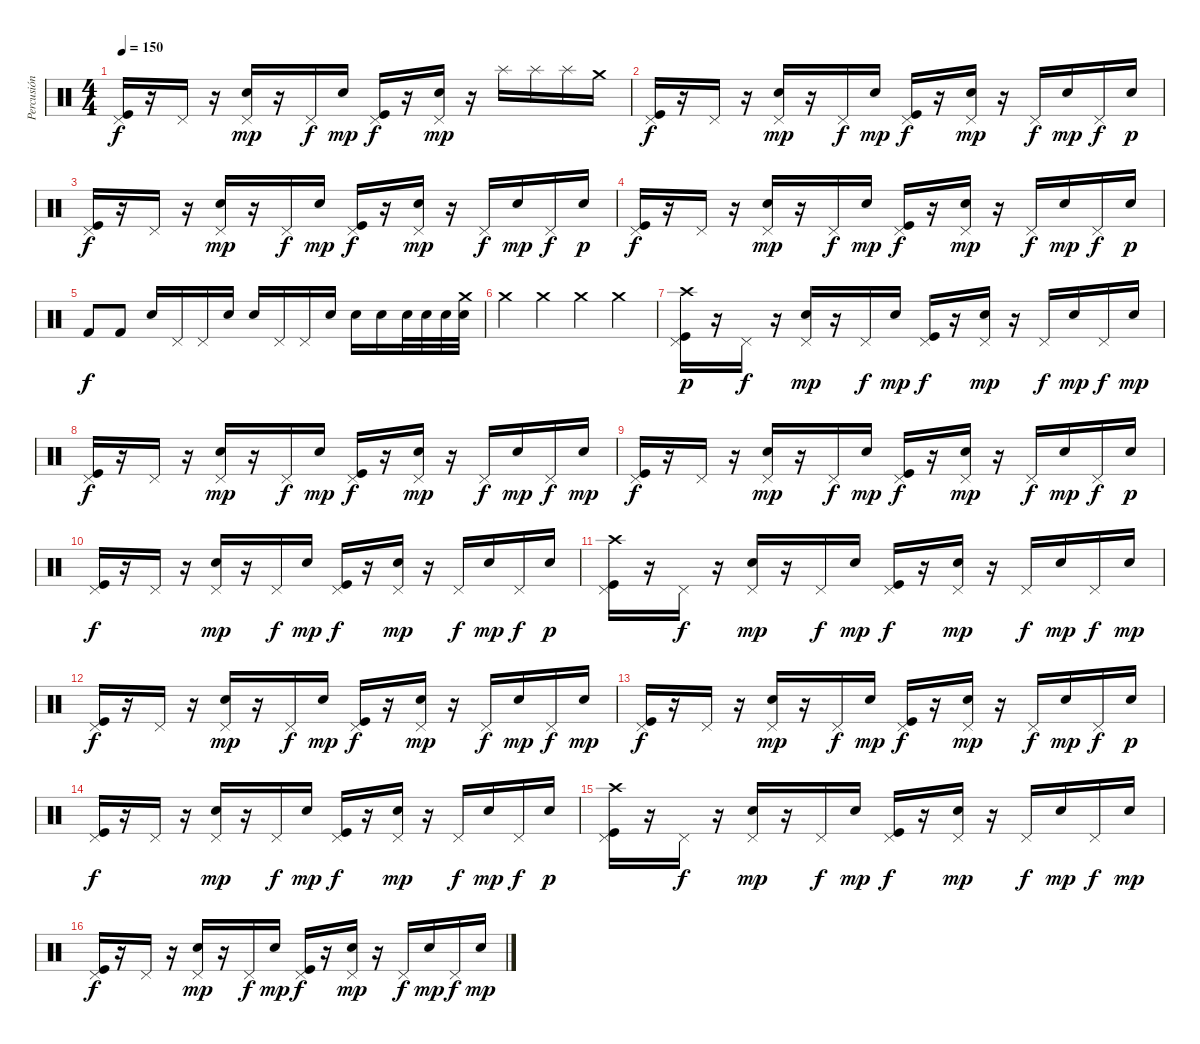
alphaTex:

\track ("Percusión" "Percusión") {instrument percussion}
\staff {score}
\articulation defaults
\ts (4 4)
\tempo 150
\clef neutral
\ks c
("Pedal Hi-Hat (hit)" "Kick (hit)").16{dy f} r.16 "Pedal Hi-Hat (hit)".16 r.16 ("Pedal Hi-Hat (hit)" "Electric Snare (hit)").16{dy mp} r.16 "Pedal Hi-Hat (hit)".16{dy f} "Electric Snare (hit)".16{dy mp} ("Pedal Hi-Hat (hit)" "Kick (hit)").16{dy f} r.16 ("Pedal Hi-Hat (hit)" "Electric Snare (hit)").16{dy mp} r.16 "Splash (hit)".16 "Splash (hit)".16 "Splash (hit)".16 "Crash medium (hit)".16 |
("Pedal Hi-Hat (hit)" "Kick (hit)").16{dy f} r.16 "Pedal Hi-Hat (hit)".16 r.16 ("Pedal Hi-Hat (hit)" "Electric Snare (hit)").16{dy mp} r.16 "Pedal Hi-Hat (hit)".16{dy f} "Electric Snare (hit)".16{dy mp} ("Pedal Hi-Hat (hit)" "Kick (hit)").16{dy f} r.16 ("Pedal Hi-Hat (hit)" "Electric Snare (hit)").16{dy mp} r.16 "Pedal Hi-Hat (hit)".16{dy f} "Electric Snare (hit)".16{dy mp} "Pedal Hi-Hat (hit)".16{dy f} "Electric Snare (hit)".16{dy p} |
("Pedal Hi-Hat (hit)" "Kick (hit)").16{dy f} r.16 "Pedal Hi-Hat (hit)".16 r.16 ("Pedal Hi-Hat (hit)" "Electric Snare (hit)").16{dy mp} r.16 "Pedal Hi-Hat (hit)".16{dy f} "Electric Snare (hit)".16{dy mp} ("Pedal Hi-Hat (hit)" "Kick (hit)").16{dy f} r.16 ("Pedal Hi-Hat (hit)" "Electric Snare (hit)").16{dy mp} r.16 "Pedal Hi-Hat (hit)".16{dy f} "Electric Snare (hit)".16{dy mp} "Pedal Hi-Hat (hit)".16{dy f} "Electric Snare (hit)".16{dy p} |
("Pedal Hi-Hat (hit)" "Kick (hit)").16{dy f} r.16 "Pedal Hi-Hat (hit)".16 r.16 ("Pedal Hi-Hat (hit)" "Electric Snare (hit)").16{dy mp} r.16 "Pedal Hi-Hat (hit)".16{dy f} "Electric Snare (hit)".16{dy mp} ("Pedal Hi-Hat (hit)" "Kick (hit)").16{dy f} r.16 ("Pedal Hi-Hat (hit)" "Electric Snare (hit)").16{dy mp} r.16 "Pedal Hi-Hat (hit)".16{dy f} "Electric Snare (hit)".16{dy mp} "Pedal Hi-Hat (hit)".16{dy f} "Electric Snare (hit)".16{dy p} |
"Kick (hit) 2".8{dy f} "Kick (hit) 2".8 "Electric Snare (hit)".16 "Pedal Hi-Hat (hit)".16 "Pedal Hi-Hat (hit)".16 "Electric Snare (hit)".16 "Electric Snare (hit)".16 "Pedal Hi-Hat (hit)".16 "Pedal Hi-Hat (hit)".16 "Electric Snare (hit)".16 "Electric Snare (hit)".16 "Electric Snare (hit)".16 "Electric Snare (hit)".32 "Electric Snare (hit)".32 "Electric Snare (hit)".32 ("Electric Snare (hit)" "Crash medium (hit)").32 |
"Crash medium (hit)".4 "Crash medium (hit)".4 "Crash medium (hit)".4 "Crash medium (hit)".4 |
("Pedal Hi-Hat (hit)" "Crash high (hit)" "Kick (hit)").16{dy p} r.16 "Pedal Hi-Hat (hit)".16{dy f} r.16 ("Pedal Hi-Hat (hit)" "Electric Snare (hit)").16{dy mp} r.16 "Pedal Hi-Hat (hit)".16{dy f} "Electric Snare (hit)".16{dy mp} ("Pedal Hi-Hat (hit)" "Kick (hit)").16{dy f} r.16 ("Pedal Hi-Hat (hit)" "Electric Snare (hit)").16{dy mp} r.16 "Pedal Hi-Hat (hit)".16{dy f} "Electric Snare (hit)".16{dy mp} "Pedal Hi-Hat (hit)".16{dy f} "Electric Snare (hit)".16{dy mp} |
("Pedal Hi-Hat (hit)" "Kick (hit)").16{dy f} r.16 "Pedal Hi-Hat (hit)".16 r.16 ("Pedal Hi-Hat (hit)" "Electric Snare (hit)").16{dy mp} r.16 "Pedal Hi-Hat (hit)".16{dy f} "Electric Snare (hit)".16{dy mp} ("Pedal Hi-Hat (hit)" "Kick (hit)").16{dy f} r.16 ("Pedal Hi-Hat (hit)" "Electric Snare (hit)").16{dy mp} r.16 "Pedal Hi-Hat (hit)".16{dy f} "Electric Snare (hit)".16{dy mp} "Pedal Hi-Hat (hit)".16{dy f} "Electric Snare (hit)".16{dy mp} |
("Pedal Hi-Hat (hit)" "Kick (hit)").16{dy f} r.16 "Pedal Hi-Hat (hit)".16 r.16 ("Pedal Hi-Hat (hit)" "Electric Snare (hit)").16{dy mp} r.16 "Pedal Hi-Hat (hit)".16{dy f} "Electric Snare (hit)".16{dy mp} ("Pedal Hi-Hat (hit)" "Kick (hit)").16{dy f} r.16 ("Pedal Hi-Hat (hit)" "Electric Snare (hit)").16{dy mp} r.16 "Pedal Hi-Hat (hit)".16{dy f} "Electric Snare (hit)".16{dy mp} "Pedal Hi-Hat (hit)".16{dy f} "Electric Snare (hit)".16{dy p} |
("Pedal Hi-Hat (hit)" "Kick (hit)").16{dy f} r.16 "Pedal Hi-Hat (hit)".16 r.16 ("Pedal Hi-Hat (hit)" "Electric Snare (hit)").16{dy mp} r.16 "Pedal Hi-Hat (hit)".16{dy f} "Electric Snare (hit)".16{dy mp} ("Pedal Hi-Hat (hit)" "Kick (hit)").16{dy f} r.16 ("Pedal Hi-Hat (hit)" "Electric Snare (hit)").16{dy mp} r.16 "Pedal Hi-Hat (hit)".16{dy f} "Electric Snare (hit)".16{dy mp} "Pedal Hi-Hat (hit)".16{dy f} "Electric Snare (hit)".16{dy p} |
("Pedal Hi-Hat (hit)" "Crash high (hit)" "Kick (hit)").16 r.16 "Pedal Hi-Hat (hit)".16{dy f} r.16 ("Pedal Hi-Hat (hit)" "Electric Snare (hit)").16{dy mp} r.16 "Pedal Hi-Hat (hit)".16{dy f} "Electric Snare (hit)".16{dy mp} ("Pedal Hi-Hat (hit)" "Kick (hit)").16{dy f} r.16 ("Pedal Hi-Hat (hit)" "Electric Snare (hit)").16{dy mp} r.16 "Pedal Hi-Hat (hit)".16{dy f} "Electric Snare (hit)".16{dy mp} "Pedal Hi-Hat (hit)".16{dy f} "Electric Snare (hit)".16{dy mp} |
("Pedal Hi-Hat (hit)" "Kick (hit)").16{dy f} r.16 "Pedal Hi-Hat (hit)".16 r.16 ("Pedal Hi-Hat (hit)" "Electric Snare (hit)").16{dy mp} r.16 "Pedal Hi-Hat (hit)".16{dy f} "Electric Snare (hit)".16{dy mp} ("Pedal Hi-Hat (hit)" "Kick (hit)").16{dy f} r.16 ("Pedal Hi-Hat (hit)" "Electric Snare (hit)").16{dy mp} r.16 "Pedal Hi-Hat (hit)".16{dy f} "Electric Snare (hit)".16{dy mp} "Pedal Hi-Hat (hit)".16{dy f} "Electric Snare (hit)".16{dy mp} |
("Pedal Hi-Hat (hit)" "Kick (hit)").16{dy f} r.16 "Pedal Hi-Hat (hit)".16 r.16 ("Pedal Hi-Hat (hit)" "Electric Snare (hit)").16{dy mp} r.16 "Pedal Hi-Hat (hit)".16{dy f} "Electric Snare (hit)".16{dy mp} ("Pedal Hi-Hat (hit)" "Kick (hit)").16{dy f} r.16 ("Pedal Hi-Hat (hit)" "Electric Snare (hit)").16{dy mp} r.16 "Pedal Hi-Hat (hit)".16{dy f} "Electric Snare (hit)".16{dy mp} "Pedal Hi-Hat (hit)".16{dy f} "Electric Snare (hit)".16{dy p} |
("Pedal Hi-Hat (hit)" "Kick (hit)").16{dy f} r.16 "Pedal Hi-Hat (hit)".16 r.16 ("Pedal Hi-Hat (hit)" "Electric Snare (hit)").16{dy mp} r.16 "Pedal Hi-Hat (hit)".16{dy f} "Electric Snare (hit)".16{dy mp} ("Pedal Hi-Hat (hit)" "Kick (hit)").16{dy f} r.16 ("Pedal Hi-Hat (hit)" "Electric Snare (hit)").16{dy mp} r.16 "Pedal Hi-Hat (hit)".16{dy f} "Electric Snare (hit)".16{dy mp} "Pedal Hi-Hat (hit)".16{dy f} "Electric Snare (hit)".16{dy p} |
("Pedal Hi-Hat (hit)" "Crash high (hit)" "Kick (hit)").16 r.16 "Pedal Hi-Hat (hit)".16{dy f} r.16 ("Pedal Hi-Hat (hit)" "Electric Snare (hit)").16{dy mp} r.16 "Pedal Hi-Hat (hit)".16{dy f} "Electric Snare (hit)".16{dy mp} ("Pedal Hi-Hat (hit)" "Kick (hit)").16{dy f} r.16 ("Pedal Hi-Hat (hit)" "Electric Snare (hit)").16{dy mp} r.16 "Pedal Hi-Hat (hit)".16{dy f} "Electric Snare (hit)".16{dy mp} "Pedal Hi-Hat (hit)".16{dy f} "Electric Snare (hit)".16{dy mp} |
("Pedal Hi-Hat (hit)" "Kick (hit)").16{dy f} r.16 "Pedal Hi-Hat (hit)".16 r.16 ("Pedal Hi-Hat (hit)" "Electric Snare (hit)").16{dy mp} r.16 "Pedal Hi-Hat (hit)".16{dy f} "Electric Snare (hit)".16{dy mp} ("Pedal Hi-Hat (hit)" "Kick (hit)").16{dy f} r.16 ("Pedal Hi-Hat (hit)" "Electric Snare (hit)").16{dy mp} r.16 "Pedal Hi-Hat (hit)".16{dy f} "Electric Snare (hit)".16{dy mp} "Pedal Hi-Hat (hit)".16{dy f} "Electric Snare (hit)".16{dy mp}
